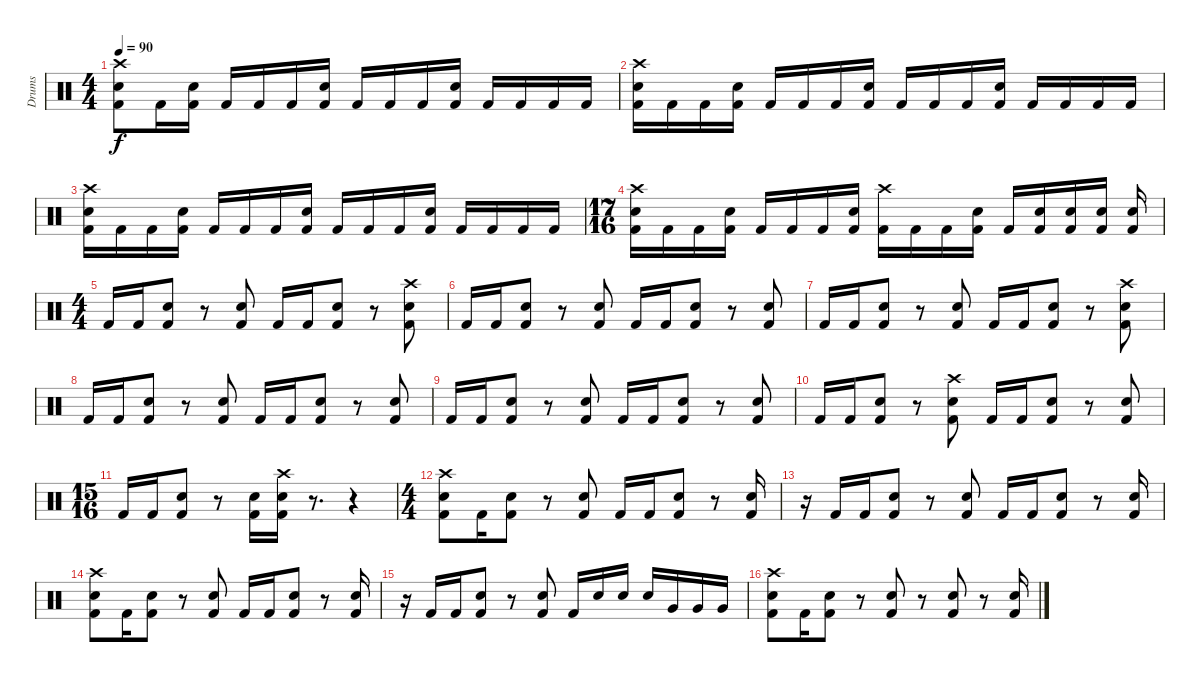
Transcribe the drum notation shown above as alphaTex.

\track ("Drums" "Drums") {instrument percussion}
\staff {score}
\articulation defaults
\ts (4 4)
\tempo 90
\clef neutral
\ks c
("Crash high (hit)" "Electric Snare (hit)" "Kick (hit) 2").8{dy f} "Kick (hit) 2".16 ("Electric Snare (hit)" "Kick (hit) 2").16 "Kick (hit) 2".16 "Kick (hit) 2".16 "Kick (hit) 2".16 ("Electric Snare (hit)" "Kick (hit) 2").16 "Kick (hit) 2".16 "Kick (hit) 2".16 "Kick (hit) 2".16 ("Electric Snare (hit)" "Kick (hit) 2").16 "Kick (hit) 2".16 "Kick (hit) 2".16 "Kick (hit) 2".16 "Kick (hit) 2".16 |
("Crash high (hit)" "Electric Snare (hit)" "Kick (hit) 2").16 "Kick (hit) 2".16 "Kick (hit) 2".16 ("Electric Snare (hit)" "Kick (hit) 2").16 "Kick (hit) 2".16 "Kick (hit) 2".16 "Kick (hit) 2".16 ("Electric Snare (hit)" "Kick (hit) 2").16 "Kick (hit) 2".16 "Kick (hit) 2".16 "Kick (hit) 2".16 ("Electric Snare (hit)" "Kick (hit) 2").16 "Kick (hit) 2".16 "Kick (hit) 2".16 "Kick (hit) 2".16 "Kick (hit) 2".16 |
("Crash high (hit)" "Electric Snare (hit)" "Kick (hit) 2").16 "Kick (hit) 2".16 "Kick (hit) 2".16 ("Electric Snare (hit)" "Kick (hit) 2").16 "Kick (hit) 2".16 "Kick (hit) 2".16 "Kick (hit) 2".16 ("Electric Snare (hit)" "Kick (hit) 2").16 "Kick (hit) 2".16 "Kick (hit) 2".16 "Kick (hit) 2".16 ("Electric Snare (hit)" "Kick (hit) 2").16 "Kick (hit) 2".16 "Kick (hit) 2".16 "Kick (hit) 2".16 "Kick (hit) 2".16 |
\ts (17 16)
("Crash high (hit)" "Electric Snare (hit)" "Kick (hit) 2").16 "Kick (hit) 2".16 "Kick (hit) 2".16 ("Electric Snare (hit)" "Kick (hit) 2").16 "Kick (hit) 2".16 "Kick (hit) 2".16 "Kick (hit) 2".16 ("Electric Snare (hit)" "Kick (hit) 2").16 ("Crash high (hit)" "Kick (hit) 2").16 "Kick (hit) 2".16 "Kick (hit) 2".16 ("Electric Snare (hit)" "Kick (hit) 2").16 "Kick (hit) 2".16 ("Electric Snare (hit)" "Kick (hit) 2").16 ("Electric Snare (hit)" "Kick (hit) 2").16 ("Electric Snare (hit)" "Kick (hit) 2").16 ("Electric Snare (hit)" "Kick (hit) 2").16 |
\ts (4 4)
"Kick (hit) 2".16 "Kick (hit) 2".16 ("Electric Snare (hit)" "Kick (hit) 2").8 r.8 ("Electric Snare (hit)" "Kick (hit) 2").8 "Kick (hit) 2".16 "Kick (hit) 2".16 ("Electric Snare (hit)" "Kick (hit) 2").8 r.8 ("Crash high (hit)" "Electric Snare (hit)" "Kick (hit) 2").8 |
"Kick (hit) 2".16 "Kick (hit) 2".16 ("Electric Snare (hit)" "Kick (hit) 2").8 r.8 ("Electric Snare (hit)" "Kick (hit) 2").8 "Kick (hit) 2".16 "Kick (hit) 2".16 ("Electric Snare (hit)" "Kick (hit) 2").8 r.8 ("Electric Snare (hit)" "Kick (hit) 2").8 |
"Kick (hit) 2".16 "Kick (hit) 2".16 ("Electric Snare (hit)" "Kick (hit) 2").8 r.8 ("Electric Snare (hit)" "Kick (hit) 2").8 "Kick (hit) 2".16 "Kick (hit) 2".16 ("Electric Snare (hit)" "Kick (hit) 2").8 r.8 ("Crash high (hit)" "Electric Snare (hit)" "Kick (hit) 2").8 |
"Kick (hit) 2".16 "Kick (hit) 2".16 ("Electric Snare (hit)" "Kick (hit) 2").8 r.8 ("Electric Snare (hit)" "Kick (hit) 2").8 "Kick (hit) 2".16 "Kick (hit) 2".16 ("Electric Snare (hit)" "Kick (hit) 2").8 r.8 ("Electric Snare (hit)" "Kick (hit) 2").8 |
"Kick (hit) 2".16 "Kick (hit) 2".16 ("Electric Snare (hit)" "Kick (hit) 2").8 r.8 ("Electric Snare (hit)" "Kick (hit) 2").8 "Kick (hit) 2".16 "Kick (hit) 2".16 ("Electric Snare (hit)" "Kick (hit) 2").8 r.8 ("Electric Snare (hit)" "Kick (hit) 2").8 |
"Kick (hit) 2".16 "Kick (hit) 2".16 ("Electric Snare (hit)" "Kick (hit) 2").8 r.8 ("Crash high (hit)" "Electric Snare (hit)" "Kick (hit) 2").8 "Kick (hit) 2".16 "Kick (hit) 2".16 ("Electric Snare (hit)" "Kick (hit) 2").8 r.8 ("Electric Snare (hit)" "Kick (hit) 2").8 |
\ts (15 16)
"Kick (hit) 2".16 "Kick (hit) 2".16 ("Electric Snare (hit)" "Kick (hit) 2").8 r.8 ("Electric Snare (hit)" "Kick (hit) 2").16 ("Crash high (hit)" "Electric Snare (hit)" "Kick (hit) 2").16 r.8{d} r.4 |
\ts (4 4)
("Crash high (hit)" "Electric Snare (hit)" "Kick (hit) 2").8 "Kick (hit) 2".16 ("Electric Snare (hit)" "Kick (hit) 2").8 r.8 ("Electric Snare (hit)" "Kick (hit) 2").8 "Kick (hit) 2".16 "Kick (hit) 2".16 ("Electric Snare (hit)" "Kick (hit) 2").8 r.8 ("Electric Snare (hit)" "Kick (hit) 2").16 |
r.16 "Kick (hit) 2".16 "Kick (hit) 2".16 ("Electric Snare (hit)" "Kick (hit) 2").8 r.8 ("Electric Snare (hit)" "Kick (hit) 2").8 "Kick (hit) 2".16 "Kick (hit) 2".16 ("Electric Snare (hit)" "Kick (hit) 2").8 r.8 ("Electric Snare (hit)" "Kick (hit) 2").16 |
("Crash high (hit)" "Electric Snare (hit)" "Kick (hit) 2").8 "Kick (hit) 2".16 ("Electric Snare (hit)" "Kick (hit) 2").8 r.8 ("Electric Snare (hit)" "Kick (hit) 2").8 "Kick (hit) 2".16 "Kick (hit) 2".16 ("Electric Snare (hit)" "Kick (hit) 2").8 r.8 ("Electric Snare (hit)" "Kick (hit) 2").16 |
r.16 "Kick (hit) 2".16 "Kick (hit) 2".16 ("Electric Snare (hit)" "Kick (hit) 2").8 r.8 ("Electric Snare (hit)" "Kick (hit) 2").8 "Kick (hit) 2".16 "Electric Snare (hit)".16 "Electric Snare (hit)".16 "Electric Snare (hit)".16 "Very Low Tom (hit)".16 "Very Low Tom (hit)".16 "Very Low Tom (hit)".16 |
("Crash high (hit)" "Electric Snare (hit)" "Kick (hit) 2").8 "Kick (hit) 2".16 ("Electric Snare (hit)" "Kick (hit) 2").8 r.8 ("Electric Snare (hit)" "Kick (hit) 2").8 r.8 ("Electric Snare (hit)" "Kick (hit) 2").8 r.8 ("Electric Snare (hit)" "Kick (hit) 2").16
